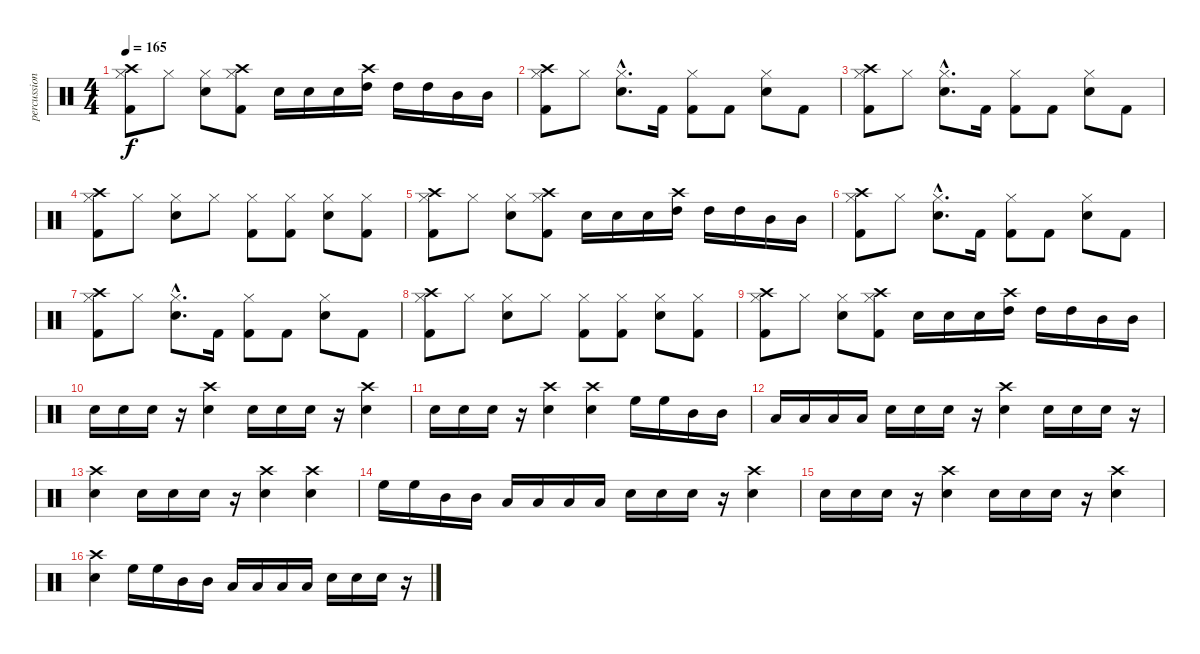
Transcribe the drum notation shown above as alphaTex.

\track ("percussion" "percussion") {instrument percussion}
\staff {score}
\articulation defaults
\ts (4 4)
\tempo 165
\clef neutral
\ks c
("Crash high (hit)" "Hi-Hat (closed)" "Kick (hit) 2").8{dy f} "Hi-Hat (closed)".8 ("Hi-Hat (closed)" "Snare (hit) 2").8 ("Crash high (hit)" "Hi-Hat (closed)" "Kick (hit) 2").8 "Snare (hit) 2".16 "Snare (hit) 2".16 "Snare (hit) 2".16 ("Crash high (hit)" "High Tom (hit)").16 "High Tom (hit)".16 "High Tom (hit)".16 "Mid Tom (hit)".16 "Mid Tom (hit)".16 |
("Crash high (hit)" "Hi-Hat (closed)" "Kick (hit) 2").8 "Hi-Hat (closed)".8 ("Hi-Hat (closed)"{hac} "Snare (hit) 2"{hac}).8{d} "Kick (hit) 2".16 ("Hi-Hat (closed)" "Kick (hit) 2").8 "Kick (hit) 2".8 ("Hi-Hat (closed)" "Snare (hit) 2").8 "Kick (hit) 2".8 |
("Crash high (hit)" "Hi-Hat (closed)" "Kick (hit) 2").8 "Hi-Hat (closed)".8 ("Hi-Hat (closed)"{hac} "Snare (hit) 2"{hac}).8{d} "Kick (hit) 2".16 ("Hi-Hat (closed)" "Kick (hit) 2").8 "Kick (hit) 2".8 ("Hi-Hat (closed)" "Snare (hit) 2").8 "Kick (hit) 2".8 |
("Crash high (hit)" "Hi-Hat (closed)" "Kick (hit) 2").8 "Hi-Hat (closed)".8 ("Hi-Hat (closed)" "Snare (hit) 2").8 "Hi-Hat (closed)".8 ("Hi-Hat (closed)" "Kick (hit) 2").8 ("Hi-Hat (closed)" "Kick (hit) 2").8 ("Hi-Hat (closed)" "Snare (hit) 2").8 ("Hi-Hat (closed)" "Kick (hit) 2").8 |
("Crash high (hit)" "Hi-Hat (closed)" "Kick (hit) 2").8 "Hi-Hat (closed)".8 ("Hi-Hat (closed)" "Snare (hit) 2").8 ("Crash high (hit)" "Hi-Hat (closed)" "Kick (hit) 2").8 "Snare (hit) 2".16 "Snare (hit) 2".16 "Snare (hit) 2".16 ("Crash high (hit)" "High Tom (hit)").16 "High Tom (hit)".16 "High Tom (hit)".16 "Mid Tom (hit)".16 "Mid Tom (hit)".16 |
("Crash high (hit)" "Hi-Hat (closed)" "Kick (hit) 2").8 "Hi-Hat (closed)".8 ("Hi-Hat (closed)"{hac} "Snare (hit) 2"{hac}).8{d} "Kick (hit) 2".16 ("Hi-Hat (closed)" "Kick (hit) 2").8 "Kick (hit) 2".8 ("Hi-Hat (closed)" "Snare (hit) 2").8 "Kick (hit) 2".8 |
("Crash high (hit)" "Hi-Hat (closed)" "Kick (hit) 2").8 "Hi-Hat (closed)".8 ("Hi-Hat (closed)"{hac} "Snare (hit) 2"{hac}).8{d} "Kick (hit) 2".16 ("Hi-Hat (closed)" "Kick (hit) 2").8 "Kick (hit) 2".8 ("Hi-Hat (closed)" "Snare (hit) 2").8 "Kick (hit) 2".8 |
("Crash high (hit)" "Hi-Hat (closed)" "Kick (hit) 2").8 "Hi-Hat (closed)".8 ("Hi-Hat (closed)" "Snare (hit) 2").8 "Hi-Hat (closed)".8 ("Hi-Hat (closed)" "Kick (hit) 2").8 ("Hi-Hat (closed)" "Kick (hit) 2").8 ("Hi-Hat (closed)" "Snare (hit) 2").8 ("Hi-Hat (closed)" "Kick (hit) 2").8 |
("Crash high (hit)" "Hi-Hat (closed)" "Kick (hit) 2").8 "Hi-Hat (closed)".8 ("Hi-Hat (closed)" "Snare (hit) 2").8 ("Crash high (hit)" "Hi-Hat (closed)" "Kick (hit) 2").8 "Snare (hit) 2".16 "Snare (hit) 2".16 "Snare (hit) 2".16 ("Crash high (hit)" "High Tom (hit)").16 "High Tom (hit)".16 "High Tom (hit)".16 "Mid Tom (hit)".16 "Mid Tom (hit)".16 |
"Snare (hit) 2".16 "Snare (hit) 2".16 "Snare (hit) 2".16 r.16 ("Crash high (hit)" "Snare (hit) 2").4 "Snare (hit) 2".16 "Snare (hit) 2".16 "Snare (hit) 2".16 r.16 ("Crash high (hit)" "Snare (hit) 2").4 |
"Snare (hit) 2".16 "Snare (hit) 2".16 "Snare (hit) 2".16 r.16 ("Crash high (hit)" "Snare (hit) 2").4 ("Crash high (hit)" "Snare (hit) 2").4 "High Floor Tom (hit)".16 "High Floor Tom (hit)".16 "Mid Tom (hit)".16 "Mid Tom (hit)".16 |
"Low Tom (hit)".16 "Low Tom (hit)".16 "Low Floor Tom (hit)".16 "Low Floor Tom (hit)".16 "Snare (hit) 2".16 "Snare (hit) 2".16 "Snare (hit) 2".16 r.16 ("Crash high (hit)" "Snare (hit) 2").4 "Snare (hit) 2".16 "Snare (hit) 2".16 "Snare (hit) 2".16 r.16 |
("Crash high (hit)" "Snare (hit) 2").4 "Snare (hit) 2".16 "Snare (hit) 2".16 "Snare (hit) 2".16 r.16 ("Crash high (hit)" "Snare (hit) 2").4 ("Crash high (hit)" "Snare (hit) 2").4 |
"High Floor Tom (hit)".16 "High Floor Tom (hit)".16 "Mid Tom (hit)".16 "Mid Tom (hit)".16 "Low Tom (hit)".16 "Low Tom (hit)".16 "Low Floor Tom (hit)".16 "Low Floor Tom (hit)".16 "Snare (hit) 2".16 "Snare (hit) 2".16 "Snare (hit) 2".16 r.16 ("Crash high (hit)" "Snare (hit) 2").4 |
"Snare (hit) 2".16 "Snare (hit) 2".16 "Snare (hit) 2".16 r.16 ("Crash high (hit)" "Snare (hit) 2").4 "Snare (hit) 2".16 "Snare (hit) 2".16 "Snare (hit) 2".16 r.16 ("Crash high (hit)" "Snare (hit) 2").4 |
("Crash high (hit)" "Snare (hit) 2").4 "High Floor Tom (hit)".16 "High Floor Tom (hit)".16 "Mid Tom (hit)".16 "Mid Tom (hit)".16 "Low Tom (hit)".16 "Low Tom (hit)".16 "Low Floor Tom (hit)".16 "Low Floor Tom (hit)".16 "Snare (hit) 2".16 "Snare (hit) 2".16 "Snare (hit) 2".16 r.16
